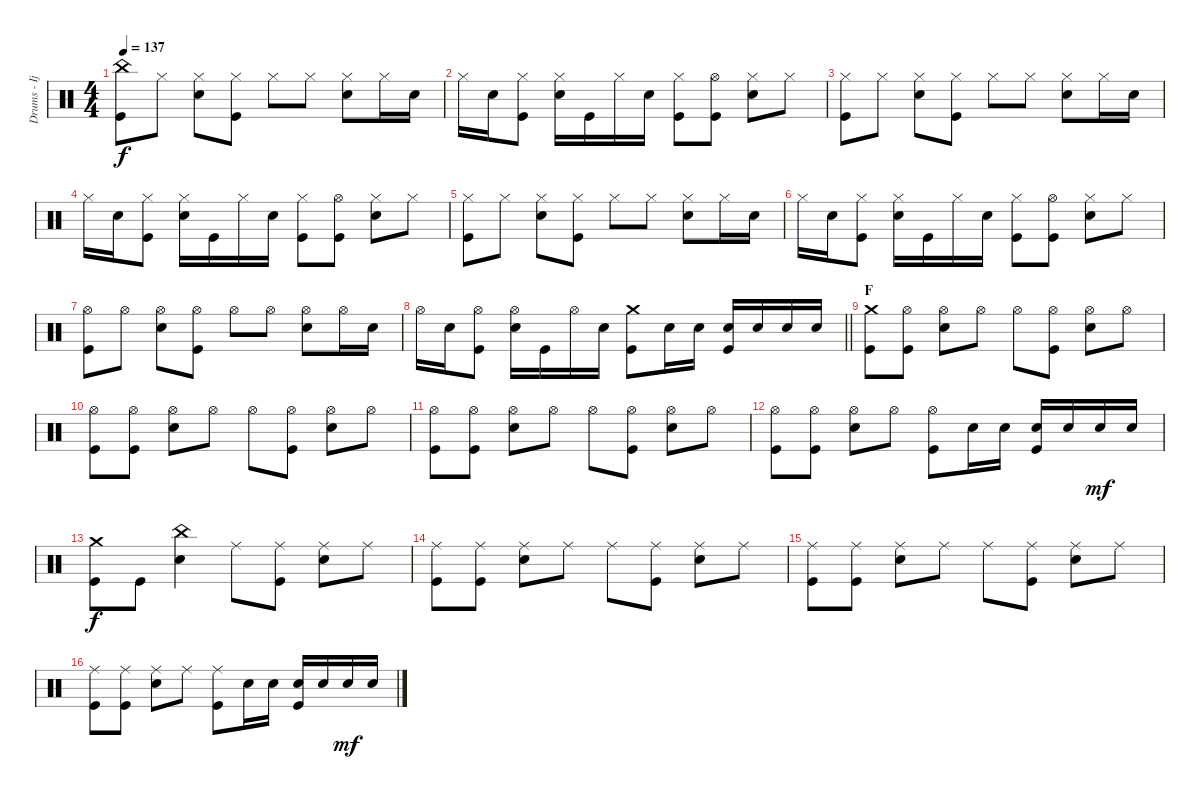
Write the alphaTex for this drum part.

\track ("Drums - Ijichi" "Drums - Ij") {instrument percussion}
\staff {score}
\articulation defaults
\ts (4 4)
\tempo 137
\clef neutral
\ks c
("China (hit)" "Kick (hit)").8{dy f} "Hi-Hat (closed)".8 ("Hi-Hat (closed)" "Electric Snare (hit)").8 ("Hi-Hat (closed)" "Kick (hit)").8 "Hi-Hat (closed)".8 "Hi-Hat (closed)".8 ("Hi-Hat (closed)" "Electric Snare (hit)").8 "Hi-Hat (closed)".16 "Electric Snare (hit)".16 |
"Hi-Hat (closed)".16 "Electric Snare (hit)".16 ("Hi-Hat (closed)" "Kick (hit)").8 ("Hi-Hat (closed)" "Electric Snare (hit)").16 "Kick (hit)".16 "Hi-Hat (closed)".16 "Electric Snare (hit)".16 ("Hi-Hat (closed)" "Kick (hit)").8 ("Hi-Hat (open)" "Kick (hit)").8 ("Hi-Hat (closed)" "Electric Snare (hit)").8 "Hi-Hat (closed)".8 |
("Hi-Hat (closed)" "Kick (hit)").8 "Hi-Hat (closed)".8 ("Hi-Hat (closed)" "Electric Snare (hit)").8 ("Hi-Hat (closed)" "Kick (hit)").8 "Hi-Hat (closed)".8 "Hi-Hat (closed)".8 ("Hi-Hat (closed)" "Electric Snare (hit)").8 "Hi-Hat (closed)".16 "Electric Snare (hit)".16 |
"Hi-Hat (closed)".16 "Electric Snare (hit)".16 ("Hi-Hat (closed)" "Kick (hit)").8 ("Hi-Hat (closed)" "Electric Snare (hit)").16 "Kick (hit)".16 "Hi-Hat (closed)".16 "Electric Snare (hit)".16 ("Hi-Hat (closed)" "Kick (hit)").8 ("Hi-Hat (open)" "Kick (hit)").8 ("Hi-Hat (closed)" "Electric Snare (hit)").8 "Hi-Hat (closed)".8 |
("Hi-Hat (closed)" "Kick (hit)").8 "Hi-Hat (closed)".8 ("Hi-Hat (closed)" "Electric Snare (hit)").8 ("Hi-Hat (closed)" "Kick (hit)").8 "Hi-Hat (closed)".8 "Hi-Hat (closed)".8 ("Hi-Hat (closed)" "Electric Snare (hit)").8 "Hi-Hat (closed)".16 "Electric Snare (hit)".16 |
"Hi-Hat (closed)".16 "Electric Snare (hit)".16 ("Hi-Hat (closed)" "Kick (hit)").8 ("Hi-Hat (closed)" "Electric Snare (hit)").16 "Kick (hit)".16 "Hi-Hat (closed)".16 "Electric Snare (hit)".16 ("Hi-Hat (closed)" "Kick (hit)").8 ("Hi-Hat (open)" "Kick (hit)").8 ("Hi-Hat (closed)" "Electric Snare (hit)").8 "Hi-Hat (closed)".8 |
("Hi-Hat (open)" "Kick (hit)").8 "Hi-Hat (open)".8 ("Hi-Hat (open)" "Electric Snare (hit)").8 ("Hi-Hat (open)" "Kick (hit)").8 "Hi-Hat (open)".8 "Hi-Hat (open)".8 ("Hi-Hat (open)" "Electric Snare (hit)").8 "Hi-Hat (open)".16 "Electric Snare (hit)".16 |
\barLineRight lightlight "Hi-Hat (open)".16 "Electric Snare (hit)".16
("Hi-Hat (open)" "Kick (hit)").8 ("Hi-Hat (open)" "Electric Snare (hit)").16 "Kick (hit)".16 "Hi-Hat (open)".16 "Electric Snare (hit)".16 ("Crash medium (hit)" "Kick (hit)").8 "Electric Snare (hit)".16 "Electric Snare (hit)".16 ("Electric Snare (hit)" "Kick (hit)").16 "Electric Snare (hit)".16 "Electric Snare (hit)".16 "Electric Snare (hit)".16 |
\section ("" "F")
("Crash medium (hit)" "Kick (hit)").8 ("Hi-Hat (open)" "Kick (hit)").8 ("Hi-Hat (open)" "Electric Snare (hit)").8 "Hi-Hat (open)".8 "Hi-Hat (open)".8 ("Hi-Hat (open)" "Kick (hit)").8 ("Hi-Hat (open)" "Electric Snare (hit)").8 "Hi-Hat (open)".8 |
("Hi-Hat (open)" "Kick (hit)").8 ("Hi-Hat (open)" "Kick (hit)").8 ("Hi-Hat (open)" "Electric Snare (hit)").8 "Hi-Hat (open)".8 "Hi-Hat (open)".8 ("Hi-Hat (open)" "Kick (hit)").8 ("Hi-Hat (open)" "Electric Snare (hit)").8 "Hi-Hat (open)".8 |
("Hi-Hat (open)" "Kick (hit)").8 ("Hi-Hat (open)" "Kick (hit)").8 ("Hi-Hat (open)" "Electric Snare (hit)").8 "Hi-Hat (open)".8 "Hi-Hat (open)".8 ("Hi-Hat (open)" "Kick (hit)").8 ("Hi-Hat (open)" "Electric Snare (hit)").8 "Hi-Hat (open)".8 |
("Hi-Hat (open)" "Kick (hit)").8 ("Hi-Hat (open)" "Kick (hit)").8 ("Hi-Hat (open)" "Electric Snare (hit)").8 "Hi-Hat (open)".8 ("Hi-Hat (open)" "Kick (hit)").8 "Electric Snare (hit)".16 "Electric Snare (hit)".16 ("Electric Snare (hit)" "Kick (hit)").16 "Electric Snare (hit)".16 "Electric Snare (hit)".16{dy mf} "Electric Snare (hit)".16 |
("Crash medium (hit)" "Kick (hit)").8{dy f} "Kick (hit)".8 ("China (hit)" "Electric Snare (hit)").4 "Ride (middle)".8 ("Ride (middle)" "Kick (hit)").8 ("Ride (middle)" "Electric Snare (hit)").8 "Ride (middle)".8 |
("Ride (middle)" "Kick (hit)").8 ("Ride (middle)" "Kick (hit)").8 ("Ride (middle)" "Electric Snare (hit)").8 "Ride (middle)".8 "Ride (middle)".8 ("Ride (middle)" "Kick (hit)").8 ("Ride (middle)" "Electric Snare (hit)").8 "Ride (middle)".8 |
("Ride (middle)" "Kick (hit)").8 ("Ride (middle)" "Kick (hit)").8 ("Ride (middle)" "Electric Snare (hit)").8 "Ride (middle)".8 "Ride (middle)".8 ("Ride (middle)" "Kick (hit)").8 ("Ride (middle)" "Electric Snare (hit)").8 "Ride (middle)".8 |
("Ride (middle)" "Kick (hit)").8 ("Ride (middle)" "Kick (hit)").8 ("Ride (middle)" "Electric Snare (hit)").8 "Ride (middle)".8 ("Ride (middle)" "Kick (hit)").8 "Electric Snare (hit)".16 "Electric Snare (hit)".16 ("Electric Snare (hit)" "Kick (hit)").16 "Electric Snare (hit)".16 "Electric Snare (hit)".16{dy mf} "Electric Snare (hit)".16
